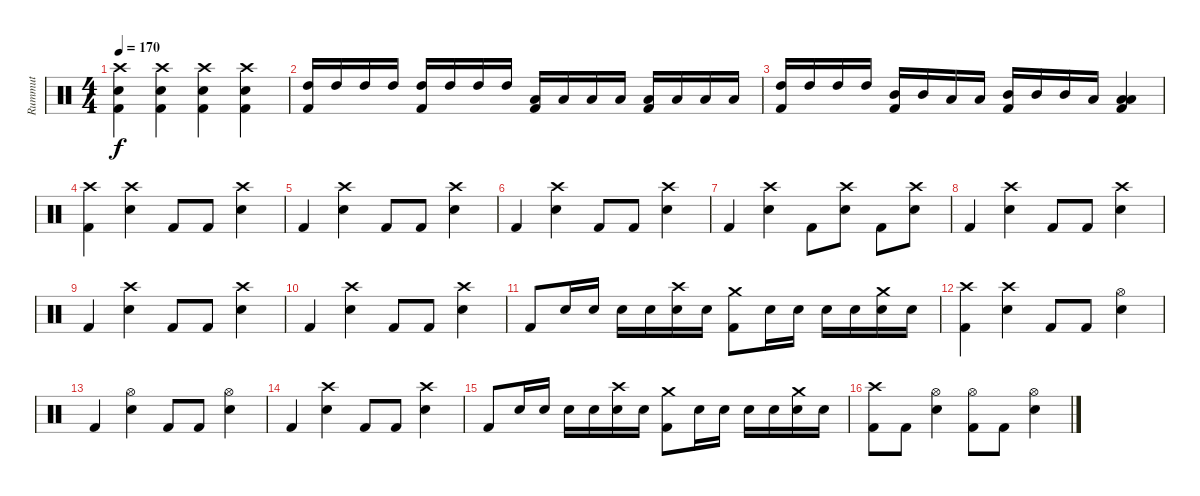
\track ("Rummut" "Rummut") {instrument percussion}
\staff {score}
\articulation defaults
\ts (4 4)
\tempo 170
\clef neutral
\ks c
("Crash high (hit)" "Electric Snare (hit)" "Kick (hit) 2").4{dy f} ("Crash high (hit)" "Electric Snare (hit)" "Kick (hit) 2").4 ("Crash high (hit)" "Electric Snare (hit)" "Kick (hit) 2").4 ("Crash high (hit)" "Electric Snare (hit)" "Kick (hit) 2").4 |
("High Tom (hit)" "Kick (hit) 2").16 "High Tom (hit)".16 "High Tom (hit)".16 "High Tom (hit)".16 ("High Tom (hit)" "Kick (hit) 2").16 "High Tom (hit)".16 "High Tom (hit)".16 "High Tom (hit)".16 ("Low Tom (hit)" "Kick (hit) 2").16 "Low Tom (hit)".16 "Low Tom (hit)".16 "Low Tom (hit)".16 ("Low Tom (hit)" "Kick (hit) 2").16 "Low Tom (hit)".16 "Low Tom (hit)".16 "Low Tom (hit)".16 |
("High Tom (hit)" "Kick (hit) 2").16 "High Tom (hit)".16 "High Tom (hit)".16 "High Tom (hit)".16 ("Mid Tom (hit)" "Kick (hit) 2").16 "Mid Tom (hit)".16 "Low Tom (hit)".16 "Low Tom (hit)".16 ("Mid Tom (hit)" "Kick (hit) 2").16 "Mid Tom (hit)".16 "Mid Tom (hit)".16 "Low Tom (hit)".16 ("Low Tom (hit)" "Low Floor Tom (hit)" "Kick (hit) 2").4 |
("Crash high (hit)" "Kick (hit) 2").4 ("Crash high (hit)" "Electric Snare (hit)").4 "Kick (hit) 2".8 "Kick (hit) 2".8 ("Crash high (hit)" "Electric Snare (hit)").4 |
"Kick (hit) 2".4 ("Crash high (hit)" "Electric Snare (hit)").4 "Kick (hit) 2".8 "Kick (hit) 2".8 ("Crash high (hit)" "Electric Snare (hit)").4 |
"Kick (hit) 2".4 ("Crash high (hit)" "Electric Snare (hit)").4 "Kick (hit) 2".8 "Kick (hit) 2".8 ("Crash high (hit)" "Electric Snare (hit)").4 |
"Kick (hit) 2".4 ("Crash high (hit)" "Electric Snare (hit)").4 "Kick (hit) 2".8 ("Crash high (hit)" "Electric Snare (hit)").8 "Kick (hit) 2".8 ("Crash high (hit)" "Electric Snare (hit)").8 |
"Kick (hit) 2".4 ("Crash high (hit)" "Electric Snare (hit)").4 "Kick (hit) 2".8 "Kick (hit) 2".8 ("Crash high (hit)" "Electric Snare (hit)").4 |
"Kick (hit) 2".4 ("Crash high (hit)" "Electric Snare (hit)").4 "Kick (hit) 2".8 "Kick (hit) 2".8 ("Crash high (hit)" "Electric Snare (hit)").4 |
"Kick (hit) 2".4 ("Crash high (hit)" "Electric Snare (hit)").4 "Kick (hit) 2".8 "Kick (hit) 2".8 ("Crash high (hit)" "Electric Snare (hit)").4 |
"Kick (hit) 2".8 "Electric Snare (hit)".16 "Electric Snare (hit)".16 "Electric Snare (hit)".16 "Electric Snare (hit)".16 ("Crash high (hit)" "Electric Snare (hit)").16 "Electric Snare (hit)".16 ("Crash medium (hit)" "Kick (hit) 2").8 "Electric Snare (hit)".16 "Electric Snare (hit)".16 "Electric Snare (hit)".16 "Electric Snare (hit)".16 ("Crash medium (hit)" "Electric Snare (hit)").16 "Electric Snare (hit)".16 |
("Crash high (hit)" "Kick (hit) 2").4 ("Crash high (hit)" "Electric Snare (hit)").4 "Kick (hit) 2".8 "Kick (hit) 2".8 ("Hi-Hat (open)" "Electric Snare (hit)").4 |
"Kick (hit) 2".4 ("Hi-Hat (open)" "Electric Snare (hit)").4 "Kick (hit) 2".8 "Kick (hit) 2".8 ("Hi-Hat (open)" "Electric Snare (hit)").4 |
"Kick (hit) 2".4 ("Crash high (hit)" "Electric Snare (hit)").4 "Kick (hit) 2".8 "Kick (hit) 2".8 ("Crash high (hit)" "Electric Snare (hit)").4 |
"Kick (hit) 2".8 "Electric Snare (hit)".16 "Electric Snare (hit)".16 "Electric Snare (hit)".16 "Electric Snare (hit)".16 ("Crash high (hit)" "Electric Snare (hit)").16 "Electric Snare (hit)".16 ("Crash medium (hit)" "Kick (hit) 2").8 "Electric Snare (hit)".16 "Electric Snare (hit)".16 "Electric Snare (hit)".16 "Electric Snare (hit)".16 ("Crash medium (hit)" "Electric Snare (hit)").16 "Electric Snare (hit)".16 |
("Crash high (hit)" "Kick (hit) 2").8 "Kick (hit) 2".8 ("Hi-Hat (open)" "Electric Snare (hit)").4 ("Hi-Hat (open)" "Kick (hit) 2").8 "Kick (hit) 2".8 ("Hi-Hat (open)" "Electric Snare (hit)").4
